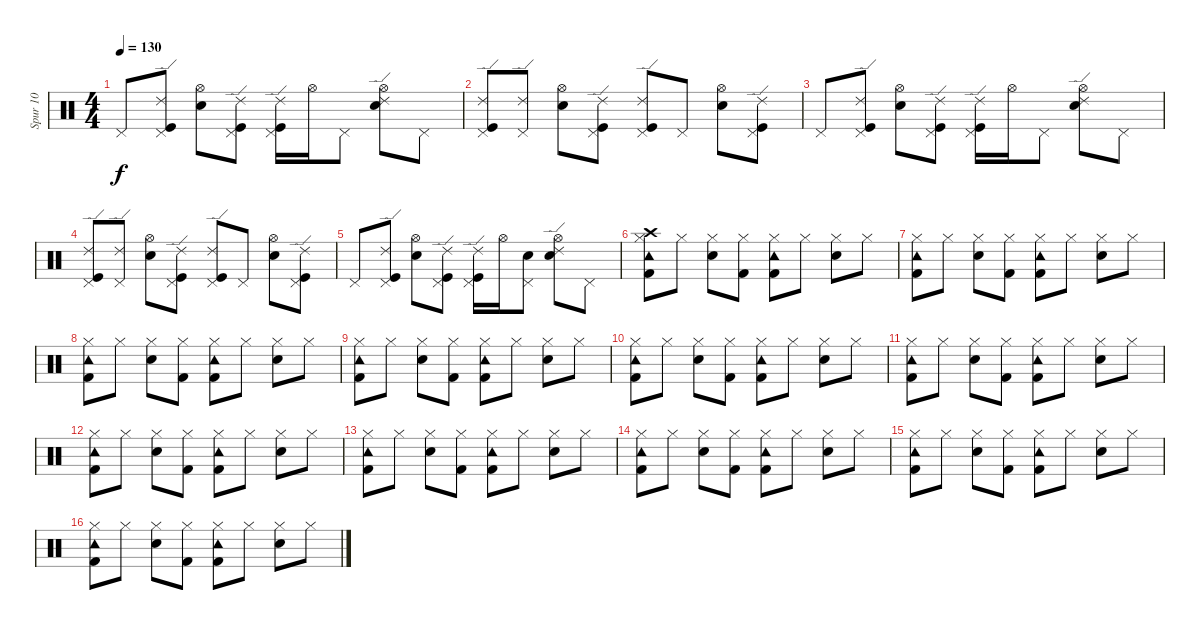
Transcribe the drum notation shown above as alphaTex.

\track ("Spur 10" "Spur 10") {instrument percussion}
\staff {score}
\articulation defaults
\ts (4 4)
\tempo 130
\clef neutral
\ks c "Pedal Hi-Hat (hit)".8{dy f}
("Kick (hit)" "Pedal Hi-Hat (hit)" "Ride (edge) 2").8 ("Electric Snare (hit)" "Hi-Hat (open)").8 ("Kick (hit)" "Pedal Hi-Hat (hit)" "Ride (edge) 2").8 ("Kick (hit)" "Pedal Hi-Hat (hit)" "Ride (edge) 2").16 "Hi-Hat (open)".16 "Pedal Hi-Hat (hit)".8 ("Electric Snare (hit)" "Hi-Hat (open)" "Ride (edge) 2").8 "Pedal Hi-Hat (hit)".8 |
("Kick (hit)" "Pedal Hi-Hat (hit)" "Ride (edge) 2").8 ("Pedal Hi-Hat (hit)" "Ride (edge) 2").8 ("Electric Snare (hit)" "Hi-Hat (open)").8 ("Kick (hit)" "Pedal Hi-Hat (hit)" "Ride (edge) 2").8 ("Kick (hit)" "Pedal Hi-Hat (hit)" "Ride (edge) 2").8 "Pedal Hi-Hat (hit)".8 ("Electric Snare (hit)" "Hi-Hat (open)").8 ("Kick (hit)" "Pedal Hi-Hat (hit)" "Ride (edge) 2").8 |
"Pedal Hi-Hat (hit)".8 ("Kick (hit)" "Pedal Hi-Hat (hit)" "Ride (edge) 2").8 ("Electric Snare (hit)" "Hi-Hat (open)").8 ("Kick (hit)" "Pedal Hi-Hat (hit)" "Ride (edge) 2").8 ("Kick (hit)" "Pedal Hi-Hat (hit)" "Ride (edge) 2").16 "Hi-Hat (open)".16 "Pedal Hi-Hat (hit)".8 ("Electric Snare (hit)" "Hi-Hat (open)" "Ride (edge) 2").8 "Pedal Hi-Hat (hit)".8 |
("Kick (hit)" "Pedal Hi-Hat (hit)" "Ride (edge) 2").8 ("Pedal Hi-Hat (hit)" "Ride (edge) 2").8 ("Electric Snare (hit)" "Hi-Hat (open)").8 ("Kick (hit)" "Pedal Hi-Hat (hit)" "Ride (edge) 2").8 ("Kick (hit)" "Pedal Hi-Hat (hit)" "Ride (edge) 2").8 "Pedal Hi-Hat (hit)".8 ("Electric Snare (hit)" "Hi-Hat (open)").8 ("Kick (hit)" "Pedal Hi-Hat (hit)" "Ride (edge) 2").8 |
"Pedal Hi-Hat (hit)".8 ("Kick (hit)" "Pedal Hi-Hat (hit)" "Ride (edge) 2").8 ("Electric Snare (hit)" "Hi-Hat (open)").8 ("Kick (hit)" "Pedal Hi-Hat (hit)" "Ride (edge) 2").8 ("Kick (hit)" "Pedal Hi-Hat (hit)" "Ride (edge) 2").16 "Hi-Hat (open)".16 ("Electric Snare (hit)" "Pedal Hi-Hat (hit)").8 ("Electric Snare (hit)" "Hi-Hat (open)" "Ride (edge) 2").8 "Pedal Hi-Hat (hit)".8 |
("Crash high (hit)" "Tambourine (hit)" "Hi-Hat (closed)" "Kick (hit) 2").8 "Hi-Hat (closed)".8 ("Hi-Hat (closed)" "Electric Snare (hit)").8 ("Hi-Hat (closed)" "Kick (hit) 2").8 ("Tambourine (hit)" "Hi-Hat (closed)" "Kick (hit) 2").8 "Hi-Hat (closed)".8 ("Hi-Hat (closed)" "Electric Snare (hit)").8 "Hi-Hat (closed)".8 |
("Hi-Hat (closed)" "Tambourine (hit)" "Kick (hit) 2").8 "Hi-Hat (closed)".8 ("Hi-Hat (closed)" "Electric Snare (hit)").8 ("Hi-Hat (closed)" "Kick (hit) 2").8 ("Tambourine (hit)" "Hi-Hat (closed)" "Kick (hit) 2").8 "Hi-Hat (closed)".8 ("Hi-Hat (closed)" "Electric Snare (hit)").8 "Hi-Hat (closed)".8 |
("Tambourine (hit)" "Hi-Hat (closed)" "Kick (hit) 2").8 "Hi-Hat (closed)".8 ("Hi-Hat (closed)" "Electric Snare (hit)").8 ("Hi-Hat (closed)" "Kick (hit) 2").8 ("Tambourine (hit)" "Hi-Hat (closed)" "Kick (hit) 2").8 "Hi-Hat (closed)".8 ("Hi-Hat (closed)" "Electric Snare (hit)").8 "Hi-Hat (closed)".8 |
("Hi-Hat (closed)" "Tambourine (hit)" "Kick (hit) 2").8 "Hi-Hat (closed)".8 ("Hi-Hat (closed)" "Electric Snare (hit)").8 ("Hi-Hat (closed)" "Kick (hit) 2").8 ("Tambourine (hit)" "Hi-Hat (closed)" "Kick (hit) 2").8 "Hi-Hat (closed)".8 ("Hi-Hat (closed)" "Electric Snare (hit)").8 "Hi-Hat (closed)".8 |
("Tambourine (hit)" "Hi-Hat (closed)" "Kick (hit) 2").8 "Hi-Hat (closed)".8 ("Hi-Hat (closed)" "Electric Snare (hit)").8 ("Hi-Hat (closed)" "Kick (hit) 2").8 ("Tambourine (hit)" "Hi-Hat (closed)" "Kick (hit) 2").8 "Hi-Hat (closed)".8 ("Hi-Hat (closed)" "Electric Snare (hit)").8 "Hi-Hat (closed)".8 |
("Hi-Hat (closed)" "Tambourine (hit)" "Kick (hit) 2").8 "Hi-Hat (closed)".8 ("Hi-Hat (closed)" "Electric Snare (hit)").8 ("Hi-Hat (closed)" "Kick (hit) 2").8 ("Tambourine (hit)" "Hi-Hat (closed)" "Kick (hit) 2").8 "Hi-Hat (closed)".8 ("Hi-Hat (closed)" "Electric Snare (hit)").8 "Hi-Hat (closed)".8 |
("Tambourine (hit)" "Hi-Hat (closed)" "Kick (hit) 2").8 "Hi-Hat (closed)".8 ("Hi-Hat (closed)" "Electric Snare (hit)").8 ("Hi-Hat (closed)" "Kick (hit) 2").8 ("Tambourine (hit)" "Hi-Hat (closed)" "Kick (hit) 2").8 "Hi-Hat (closed)".8 ("Hi-Hat (closed)" "Electric Snare (hit)").8 "Hi-Hat (closed)".8 |
("Hi-Hat (closed)" "Tambourine (hit)" "Kick (hit) 2").8 "Hi-Hat (closed)".8 ("Hi-Hat (closed)" "Electric Snare (hit)").8 ("Hi-Hat (closed)" "Kick (hit) 2").8 ("Tambourine (hit)" "Hi-Hat (closed)" "Kick (hit) 2").8 "Hi-Hat (closed)".8 ("Hi-Hat (closed)" "Electric Snare (hit)").8 "Hi-Hat (closed)".8 |
("Hi-Hat (closed)" "Tambourine (hit)" "Kick (hit) 2").8 "Hi-Hat (closed)".8 ("Hi-Hat (closed)" "Electric Snare (hit)").8 ("Hi-Hat (closed)" "Kick (hit) 2").8 ("Tambourine (hit)" "Hi-Hat (closed)" "Kick (hit) 2").8 "Hi-Hat (closed)".8 ("Hi-Hat (closed)" "Electric Snare (hit)").8 "Hi-Hat (closed)".8 |
("Hi-Hat (closed)" "Tambourine (hit)" "Kick (hit) 2").8 "Hi-Hat (closed)".8 ("Hi-Hat (closed)" "Electric Snare (hit)").8 ("Hi-Hat (closed)" "Kick (hit) 2").8 ("Tambourine (hit)" "Hi-Hat (closed)" "Kick (hit) 2").8 "Hi-Hat (closed)".8 ("Hi-Hat (closed)" "Electric Snare (hit)").8 "Hi-Hat (closed)".8 |
("Hi-Hat (closed)" "Tambourine (hit)" "Kick (hit) 2").8 "Hi-Hat (closed)".8 ("Hi-Hat (closed)" "Electric Snare (hit)").8 ("Hi-Hat (closed)" "Kick (hit) 2").8 ("Tambourine (hit)" "Hi-Hat (closed)" "Kick (hit) 2").8 "Hi-Hat (closed)".8 ("Hi-Hat (closed)" "Electric Snare (hit)").8 "Hi-Hat (closed)".8
